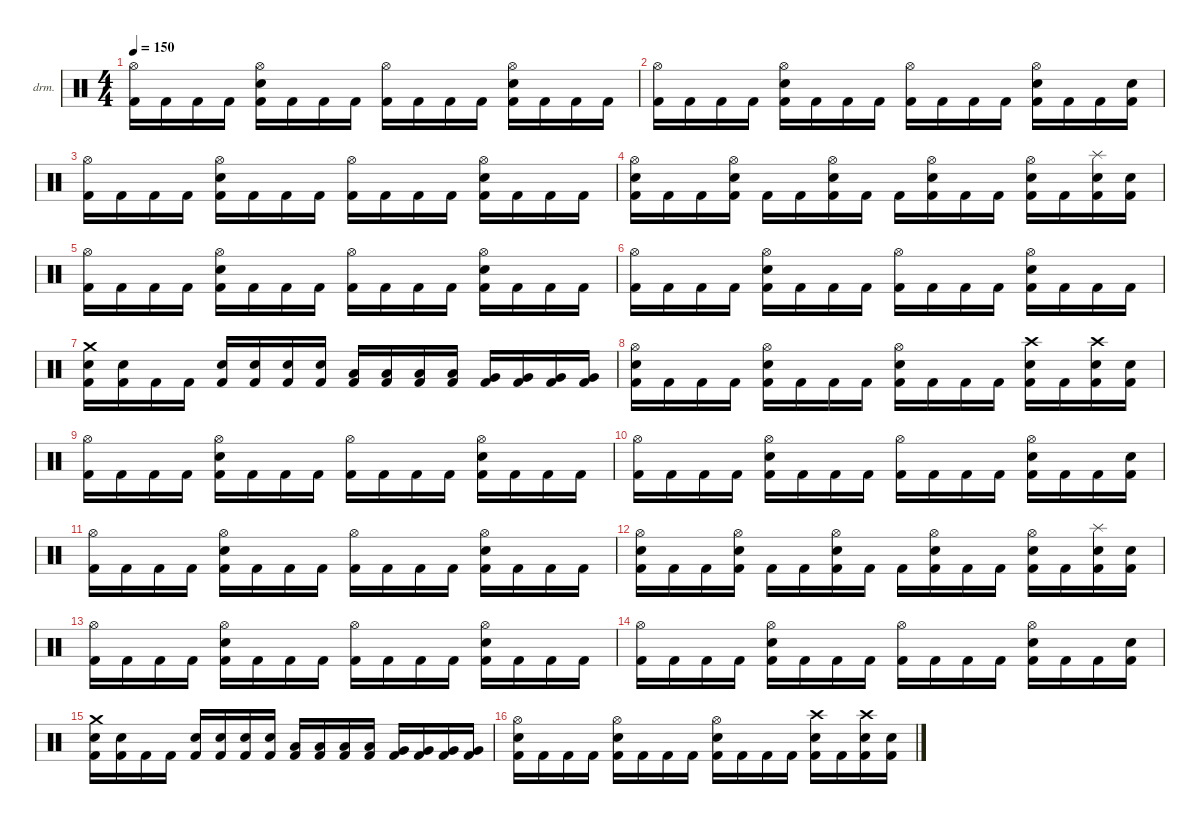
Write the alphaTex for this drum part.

\defaultSystemsLayout 4
\hideDynamics
\bracketExtendMode nobrackets
\firstSystemTrackNameOrientation horizontal
\otherSystemsTrackNameOrientation horizontal
\track ("Drumkit" "drm.") {mute instrument percussion}
\staff {score}
\articulation defaults
\ts (4 4)
\tempo 150
\clef neutral
\ks c
("Hi-Hat (open)" "Kick (hit) 2").16{dy ff} "Kick (hit) 2".16 "Kick (hit) 2".16 "Kick (hit) 2".16 ("Hi-Hat (open)" "Snare (hit) 2" "Kick (hit) 2").16 "Kick (hit) 2".16 "Kick (hit) 2".16 "Kick (hit) 2".16 ("Hi-Hat (open)" "Kick (hit) 2").16 "Kick (hit) 2".16 "Kick (hit) 2".16 "Kick (hit) 2".16 ("Hi-Hat (open)" "Snare (hit) 2" "Kick (hit) 2").16 "Kick (hit) 2".16 "Kick (hit) 2".16 "Kick (hit) 2".16 |
("Hi-Hat (open)" "Kick (hit) 2").16 "Kick (hit) 2".16 "Kick (hit) 2".16 "Kick (hit) 2".16 ("Hi-Hat (open)" "Snare (hit) 2" "Kick (hit) 2").16 "Kick (hit) 2".16 "Kick (hit) 2".16 "Kick (hit) 2".16 ("Hi-Hat (open)" "Kick (hit) 2").16 "Kick (hit) 2".16 "Kick (hit) 2".16 "Kick (hit) 2".16 ("Hi-Hat (open)" "Snare (hit) 2" "Kick (hit) 2").16 "Kick (hit) 2".16 "Kick (hit) 2".16 ("Snare (hit) 2" "Kick (hit) 2").16 |
("Hi-Hat (open)" "Kick (hit) 2").16 "Kick (hit) 2".16 "Kick (hit) 2".16 "Kick (hit) 2".16 ("Hi-Hat (open)" "Snare (hit) 2" "Kick (hit) 2").16 "Kick (hit) 2".16 "Kick (hit) 2".16 "Kick (hit) 2".16 ("Hi-Hat (open)" "Kick (hit) 2").16 "Kick (hit) 2".16 "Kick (hit) 2".16 "Kick (hit) 2".16 ("Hi-Hat (open)" "Snare (hit) 2" "Kick (hit) 2").16 "Kick (hit) 2".16 "Kick (hit) 2".16 "Kick (hit) 2".16 |
("Hi-Hat (open)" "Snare (hit) 2" "Kick (hit) 2").16 "Kick (hit) 2".16 "Kick (hit) 2".16 ("Hi-Hat (open)" "Snare (hit) 2" "Kick (hit) 2").16 "Kick (hit) 2".16 "Kick (hit) 2".16 ("Hi-Hat (open)" "Snare (hit) 2" "Kick (hit) 2").16 "Kick (hit) 2".16 "Kick (hit) 2".16 ("Hi-Hat (open)" "Snare (hit) 2" "Kick (hit) 2").16 "Kick (hit) 2".16 "Kick (hit) 2".16 ("Hi-Hat (open)" "Snare (hit) 2" "Kick (hit) 2").16 "Kick (hit) 2".16 ("Splash (hit)" "Snare (hit) 2" "Kick (hit) 2").16 ("Snare (hit) 2" "Kick (hit) 2").16 |
("Hi-Hat (open)" "Kick (hit) 2").16 "Kick (hit) 2".16 "Kick (hit) 2".16 "Kick (hit) 2".16 ("Hi-Hat (open)" "Snare (hit) 2" "Kick (hit) 2").16 "Kick (hit) 2".16 "Kick (hit) 2".16 "Kick (hit) 2".16 ("Hi-Hat (open)" "Kick (hit) 2").16 "Kick (hit) 2".16 "Kick (hit) 2".16 "Kick (hit) 2".16 ("Hi-Hat (open)" "Snare (hit) 2" "Kick (hit) 2").16 "Kick (hit) 2".16 "Kick (hit) 2".16 "Kick (hit) 2".16 |
("Hi-Hat (open)" "Kick (hit) 2").16 "Kick (hit) 2".16 "Kick (hit) 2".16 "Kick (hit) 2".16 ("Hi-Hat (open)" "Snare (hit) 2" "Kick (hit) 2").16 "Kick (hit) 2".16 "Kick (hit) 2".16 "Kick (hit) 2".16 ("Hi-Hat (open)" "Kick (hit) 2").16 "Kick (hit) 2".16 "Kick (hit) 2".16 "Kick (hit) 2".16 ("Hi-Hat (open)" "Snare (hit) 2" "Kick (hit) 2").16 "Kick (hit) 2".16 "Kick (hit) 2".16 "Kick (hit) 2".16 |
("Crash medium (hit)" "Snare (hit) 2" "Kick (hit) 2").16{dy mf} ("Snare (hit) 2" "Kick (hit) 2").16 "Kick (hit) 2".16 "Kick (hit) 2".16 ("Snare (hit) 2" "Kick (hit) 2").16 ("Snare (hit) 2" "Kick (hit) 2").16 ("Snare (hit) 2" "Kick (hit) 2").16 ("Snare (hit) 2" "Kick (hit) 2").16 ("Low Tom (hit)" "Kick (hit) 2").16 ("Low Tom (hit)" "Kick (hit) 2").16 ("Low Tom (hit)" "Kick (hit) 2").16 ("Low Tom (hit)" "Kick (hit) 2").16 ("Very Low Tom (hit)" "Kick (hit) 2").16 ("Very Low Tom (hit)" "Kick (hit) 2").16 ("Very Low Tom (hit)" "Kick (hit) 2").16 ("Very Low Tom (hit)" "Kick (hit) 2").16 |
("Hi-Hat (open)" "Snare (hit) 2" "Kick (hit) 2").16 "Kick (hit) 2".16 "Kick (hit) 2".16 "Kick (hit) 2".16 ("Hi-Hat (open)" "Snare (hit) 2" "Kick (hit) 2").16 "Kick (hit) 2".16 "Kick (hit) 2".16 "Kick (hit) 2".16 ("Hi-Hat (open)" "Snare (hit) 2" "Kick (hit) 2").16 "Kick (hit) 2".16 "Kick (hit) 2".16 "Kick (hit) 2".16 ("Crash high (hit)" "Snare (hit) 2" "Kick (hit) 2").16 "Kick (hit) 2".16 ("Crash high (hit)" "Snare (hit) 2" "Kick (hit) 2").16 ("Snare (hit) 2" "Kick (hit) 2").16 |
("Hi-Hat (open)" "Kick (hit) 2").16{dy ff} "Kick (hit) 2".16 "Kick (hit) 2".16 "Kick (hit) 2".16 ("Hi-Hat (open)" "Snare (hit) 2" "Kick (hit) 2").16 "Kick (hit) 2".16 "Kick (hit) 2".16 "Kick (hit) 2".16 ("Hi-Hat (open)" "Kick (hit) 2").16 "Kick (hit) 2".16 "Kick (hit) 2".16 "Kick (hit) 2".16 ("Hi-Hat (open)" "Snare (hit) 2" "Kick (hit) 2").16 "Kick (hit) 2".16 "Kick (hit) 2".16 "Kick (hit) 2".16 |
("Hi-Hat (open)" "Kick (hit) 2").16 "Kick (hit) 2".16 "Kick (hit) 2".16 "Kick (hit) 2".16 ("Hi-Hat (open)" "Snare (hit) 2" "Kick (hit) 2").16 "Kick (hit) 2".16 "Kick (hit) 2".16 "Kick (hit) 2".16 ("Hi-Hat (open)" "Kick (hit) 2").16 "Kick (hit) 2".16 "Kick (hit) 2".16 "Kick (hit) 2".16 ("Hi-Hat (open)" "Snare (hit) 2" "Kick (hit) 2").16 "Kick (hit) 2".16 "Kick (hit) 2".16 ("Snare (hit) 2" "Kick (hit) 2").16 |
("Hi-Hat (open)" "Kick (hit) 2").16 "Kick (hit) 2".16 "Kick (hit) 2".16 "Kick (hit) 2".16 ("Hi-Hat (open)" "Snare (hit) 2" "Kick (hit) 2").16 "Kick (hit) 2".16 "Kick (hit) 2".16 "Kick (hit) 2".16 ("Hi-Hat (open)" "Kick (hit) 2").16 "Kick (hit) 2".16 "Kick (hit) 2".16 "Kick (hit) 2".16 ("Hi-Hat (open)" "Snare (hit) 2" "Kick (hit) 2").16 "Kick (hit) 2".16 "Kick (hit) 2".16 "Kick (hit) 2".16 |
("Hi-Hat (open)" "Snare (hit) 2" "Kick (hit) 2").16 "Kick (hit) 2".16 "Kick (hit) 2".16 ("Hi-Hat (open)" "Snare (hit) 2" "Kick (hit) 2").16 "Kick (hit) 2".16 "Kick (hit) 2".16 ("Hi-Hat (open)" "Snare (hit) 2" "Kick (hit) 2").16 "Kick (hit) 2".16 "Kick (hit) 2".16 ("Hi-Hat (open)" "Snare (hit) 2" "Kick (hit) 2").16 "Kick (hit) 2".16 "Kick (hit) 2".16 ("Hi-Hat (open)" "Snare (hit) 2" "Kick (hit) 2").16 "Kick (hit) 2".16 ("Splash (hit)" "Snare (hit) 2" "Kick (hit) 2").16 ("Snare (hit) 2" "Kick (hit) 2").16 |
("Hi-Hat (open)" "Kick (hit) 2").16 "Kick (hit) 2".16 "Kick (hit) 2".16 "Kick (hit) 2".16 ("Hi-Hat (open)" "Snare (hit) 2" "Kick (hit) 2").16 "Kick (hit) 2".16 "Kick (hit) 2".16 "Kick (hit) 2".16 ("Hi-Hat (open)" "Kick (hit) 2").16 "Kick (hit) 2".16 "Kick (hit) 2".16 "Kick (hit) 2".16 ("Hi-Hat (open)" "Snare (hit) 2" "Kick (hit) 2").16 "Kick (hit) 2".16 "Kick (hit) 2".16 "Kick (hit) 2".16 |
("Hi-Hat (open)" "Kick (hit) 2").16 "Kick (hit) 2".16 "Kick (hit) 2".16 "Kick (hit) 2".16 ("Hi-Hat (open)" "Snare (hit) 2" "Kick (hit) 2").16 "Kick (hit) 2".16 "Kick (hit) 2".16 "Kick (hit) 2".16 ("Hi-Hat (open)" "Kick (hit) 2").16 "Kick (hit) 2".16 "Kick (hit) 2".16 "Kick (hit) 2".16 ("Hi-Hat (open)" "Snare (hit) 2" "Kick (hit) 2").16 "Kick (hit) 2".16 "Kick (hit) 2".16 ("Snare (hit) 2" "Kick (hit) 2").16 |
("Crash medium (hit)" "Snare (hit) 2" "Kick (hit) 2").16{dy mf} ("Snare (hit) 2" "Kick (hit) 2").16 "Kick (hit) 2".16 "Kick (hit) 2".16 ("Snare (hit) 2" "Kick (hit) 2").16 ("Snare (hit) 2" "Kick (hit) 2").16 ("Snare (hit) 2" "Kick (hit) 2").16 ("Snare (hit) 2" "Kick (hit) 2").16 ("Low Tom (hit)" "Kick (hit) 2").16 ("Low Tom (hit)" "Kick (hit) 2").16 ("Low Tom (hit)" "Kick (hit) 2").16 ("Low Tom (hit)" "Kick (hit) 2").16 ("Very Low Tom (hit)" "Kick (hit) 2").16 ("Very Low Tom (hit)" "Kick (hit) 2").16 ("Very Low Tom (hit)" "Kick (hit) 2").16 ("Very Low Tom (hit)" "Kick (hit) 2").16 |
("Hi-Hat (open)" "Snare (hit) 2" "Kick (hit) 2").16 "Kick (hit) 2".16 "Kick (hit) 2".16 "Kick (hit) 2".16 ("Hi-Hat (open)" "Snare (hit) 2" "Kick (hit) 2").16 "Kick (hit) 2".16 "Kick (hit) 2".16 "Kick (hit) 2".16 ("Hi-Hat (open)" "Snare (hit) 2" "Kick (hit) 2").16 "Kick (hit) 2".16 "Kick (hit) 2".16 "Kick (hit) 2".16 ("Crash high (hit)" "Snare (hit) 2" "Kick (hit) 2").16 "Kick (hit) 2".16 ("Crash high (hit)" "Snare (hit) 2" "Kick (hit) 2").16 ("Snare (hit) 2" "Kick (hit) 2").16
